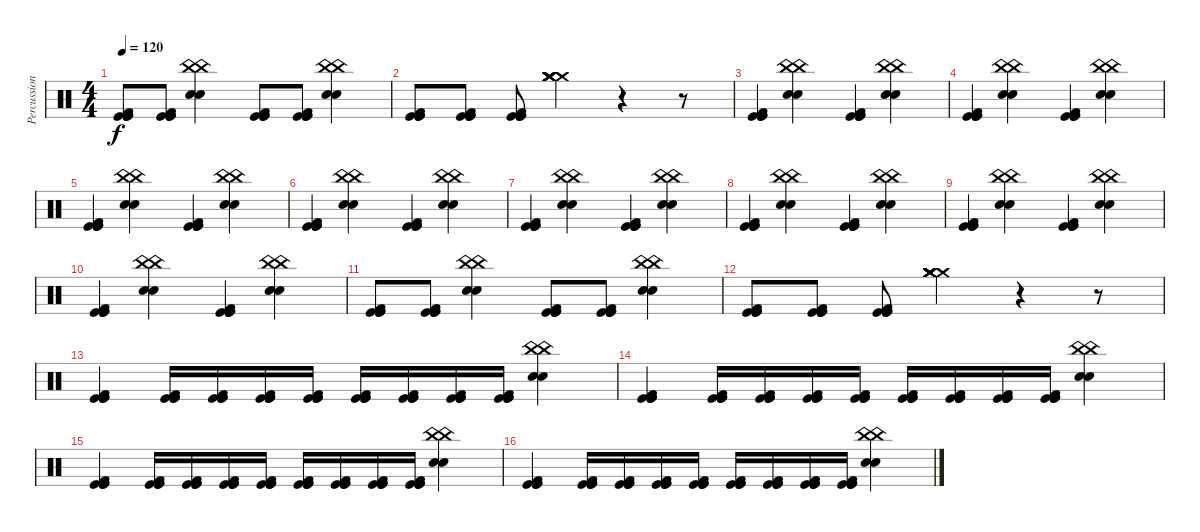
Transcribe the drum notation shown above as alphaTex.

\track ("Percussion" "Percussion") {instrument percussion}
\staff {score}
\articulation defaults
\ts (4 4)
\tempo 120
\clef neutral
\ks c
("Kick (hit)" "Kick (hit)" "Kick (hit)" "Kick (hit) 2").8{dy f} ("Kick (hit)" "Kick (hit)" "Kick (hit)" "Kick (hit) 2").8 ("China (hit)" "China (hit)" "Snare (hit) 2" "Snare (hit) 2").4 ("Kick (hit)" "Kick (hit)" "Kick (hit)" "Kick (hit) 2").8 ("Kick (hit)" "Kick (hit)" "Kick (hit)" "Kick (hit) 2").8 ("China (hit)" "China (hit)" "Snare (hit) 2" "Snare (hit) 2").4 |
("Kick (hit)" "Kick (hit)" "Kick (hit)" "Kick (hit) 2").8 ("Kick (hit)" "Kick (hit)" "Kick (hit)" "Kick (hit) 2").8 ("Kick (hit)" "Kick (hit)" "Kick (hit)" "Kick (hit) 2").8 ("Crash medium (hit)" "Crash medium (hit)" "Crash medium (hit)" "Crash medium (hit)" "Crash medium (hit)" "Crash medium (hit)").4 r.4 r.8 |
("Kick (hit)" "Kick (hit)" "Kick (hit)" "Kick (hit) 2").4 ("China (hit)" "China (hit)" "Snare (hit) 2" "Snare (hit) 2").4 ("Kick (hit)" "Kick (hit)" "Kick (hit)" "Kick (hit) 2").4 ("China (hit)" "China (hit)" "Snare (hit) 2" "Snare (hit) 2").4 |
("Kick (hit)" "Kick (hit)" "Kick (hit)" "Kick (hit) 2").4 ("China (hit)" "China (hit)" "Snare (hit) 2" "Snare (hit) 2").4 ("Kick (hit)" "Kick (hit)" "Kick (hit)" "Kick (hit) 2").4 ("China (hit)" "China (hit)" "Snare (hit) 2" "Snare (hit) 2").4 |
("Kick (hit)" "Kick (hit)" "Kick (hit)" "Kick (hit) 2").4 ("China (hit)" "China (hit)" "Snare (hit) 2" "Snare (hit) 2").4 ("Kick (hit)" "Kick (hit)" "Kick (hit)" "Kick (hit) 2").4 ("China (hit)" "China (hit)" "Snare (hit) 2" "Snare (hit) 2").4 |
("Kick (hit)" "Kick (hit)" "Kick (hit)" "Kick (hit) 2").4 ("China (hit)" "China (hit)" "Snare (hit) 2" "Snare (hit) 2").4 ("Kick (hit)" "Kick (hit)" "Kick (hit)" "Kick (hit) 2").4 ("China (hit)" "China (hit)" "Snare (hit) 2" "Snare (hit) 2").4 |
("Kick (hit)" "Kick (hit)" "Kick (hit)" "Kick (hit) 2").4 ("China (hit)" "China (hit)" "Snare (hit) 2" "Snare (hit) 2").4 ("Kick (hit)" "Kick (hit)" "Kick (hit)" "Kick (hit) 2").4 ("China (hit)" "China (hit)" "Snare (hit) 2" "Snare (hit) 2").4 |
("Kick (hit)" "Kick (hit)" "Kick (hit)" "Kick (hit) 2").4 ("China (hit)" "China (hit)" "Snare (hit) 2" "Snare (hit) 2").4 ("Kick (hit)" "Kick (hit)" "Kick (hit)" "Kick (hit) 2").4 ("China (hit)" "China (hit)" "Snare (hit) 2" "Snare (hit) 2").4 |
("Kick (hit)" "Kick (hit)" "Kick (hit)" "Kick (hit) 2").4 ("China (hit)" "China (hit)" "Snare (hit) 2" "Snare (hit) 2").4 ("Kick (hit)" "Kick (hit)" "Kick (hit)" "Kick (hit) 2").4 ("China (hit)" "China (hit)" "Snare (hit) 2" "Snare (hit) 2").4 |
("Kick (hit)" "Kick (hit)" "Kick (hit)" "Kick (hit) 2").4 ("China (hit)" "China (hit)" "Snare (hit) 2" "Snare (hit) 2").4 ("Kick (hit)" "Kick (hit)" "Kick (hit)" "Kick (hit) 2").4 ("China (hit)" "China (hit)" "Snare (hit) 2" "Snare (hit) 2").4 |
("Kick (hit)" "Kick (hit)" "Kick (hit)" "Kick (hit) 2").8 ("Kick (hit)" "Kick (hit)" "Kick (hit)" "Kick (hit) 2").8 ("China (hit)" "China (hit)" "Snare (hit) 2" "Snare (hit) 2").4 ("Kick (hit)" "Kick (hit)" "Kick (hit)" "Kick (hit) 2").8 ("Kick (hit)" "Kick (hit)" "Kick (hit)" "Kick (hit) 2").8 ("China (hit)" "China (hit)" "Snare (hit) 2" "Snare (hit) 2").4 |
("Kick (hit)" "Kick (hit)" "Kick (hit)" "Kick (hit) 2").8 ("Kick (hit)" "Kick (hit)" "Kick (hit)" "Kick (hit) 2").8 ("Kick (hit)" "Kick (hit)" "Kick (hit)" "Kick (hit) 2").8 ("Crash medium (hit)" "Crash medium (hit)" "Crash medium (hit)" "Crash medium (hit)" "Crash medium (hit)" "Crash medium (hit)").4 r.4 r.8 |
("Kick (hit)" "Kick (hit)" "Kick (hit)" "Kick (hit) 2").4 ("Kick (hit)" "Kick (hit)" "Kick (hit)" "Kick (hit) 2").16 ("Kick (hit)" "Kick (hit)" "Kick (hit)" "Kick (hit) 2").16 ("Kick (hit)" "Kick (hit)" "Kick (hit)" "Kick (hit) 2").16 ("Kick (hit)" "Kick (hit)" "Kick (hit)" "Kick (hit) 2").16 ("Kick (hit)" "Kick (hit)" "Kick (hit)" "Kick (hit) 2").16 ("Kick (hit)" "Kick (hit)" "Kick (hit)" "Kick (hit) 2").16 ("Kick (hit)" "Kick (hit)" "Kick (hit)" "Kick (hit) 2").16 ("Kick (hit)" "Kick (hit)" "Kick (hit)" "Kick (hit) 2").16 ("China (hit)" "China (hit)" "Snare (hit) 2" "Snare (hit) 2").4 |
("Kick (hit)" "Kick (hit)" "Kick (hit)" "Kick (hit) 2").4 ("Kick (hit)" "Kick (hit)" "Kick (hit)" "Kick (hit) 2").16 ("Kick (hit)" "Kick (hit)" "Kick (hit)" "Kick (hit) 2").16 ("Kick (hit)" "Kick (hit)" "Kick (hit)" "Kick (hit) 2").16 ("Kick (hit)" "Kick (hit)" "Kick (hit)" "Kick (hit) 2").16 ("Kick (hit)" "Kick (hit)" "Kick (hit)" "Kick (hit) 2").16 ("Kick (hit)" "Kick (hit)" "Kick (hit)" "Kick (hit) 2").16 ("Kick (hit)" "Kick (hit)" "Kick (hit)" "Kick (hit) 2").16 ("Kick (hit)" "Kick (hit)" "Kick (hit)" "Kick (hit) 2").16 ("China (hit)" "China (hit)" "Snare (hit) 2" "Snare (hit) 2").4 |
("Kick (hit)" "Kick (hit)" "Kick (hit)" "Kick (hit) 2").4 ("Kick (hit)" "Kick (hit)" "Kick (hit)" "Kick (hit) 2").16 ("Kick (hit)" "Kick (hit)" "Kick (hit)" "Kick (hit) 2").16 ("Kick (hit)" "Kick (hit)" "Kick (hit)" "Kick (hit) 2").16 ("Kick (hit)" "Kick (hit)" "Kick (hit)" "Kick (hit) 2").16 ("Kick (hit)" "Kick (hit)" "Kick (hit)" "Kick (hit) 2").16 ("Kick (hit)" "Kick (hit)" "Kick (hit)" "Kick (hit) 2").16 ("Kick (hit)" "Kick (hit)" "Kick (hit)" "Kick (hit) 2").16 ("Kick (hit)" "Kick (hit)" "Kick (hit)" "Kick (hit) 2").16 ("China (hit)" "China (hit)" "Snare (hit) 2" "Snare (hit) 2").4 |
("Kick (hit)" "Kick (hit)" "Kick (hit)" "Kick (hit) 2").4 ("Kick (hit)" "Kick (hit)" "Kick (hit)" "Kick (hit) 2").16 ("Kick (hit)" "Kick (hit)" "Kick (hit)" "Kick (hit) 2").16 ("Kick (hit)" "Kick (hit)" "Kick (hit)" "Kick (hit) 2").16 ("Kick (hit)" "Kick (hit)" "Kick (hit)" "Kick (hit) 2").16 ("Kick (hit)" "Kick (hit)" "Kick (hit)" "Kick (hit) 2").16 ("Kick (hit)" "Kick (hit)" "Kick (hit)" "Kick (hit) 2").16 ("Kick (hit)" "Kick (hit)" "Kick (hit)" "Kick (hit) 2").16 ("Kick (hit)" "Kick (hit)" "Kick (hit)" "Kick (hit) 2").16 ("China (hit)" "China (hit)" "Snare (hit) 2" "Snare (hit) 2").4
